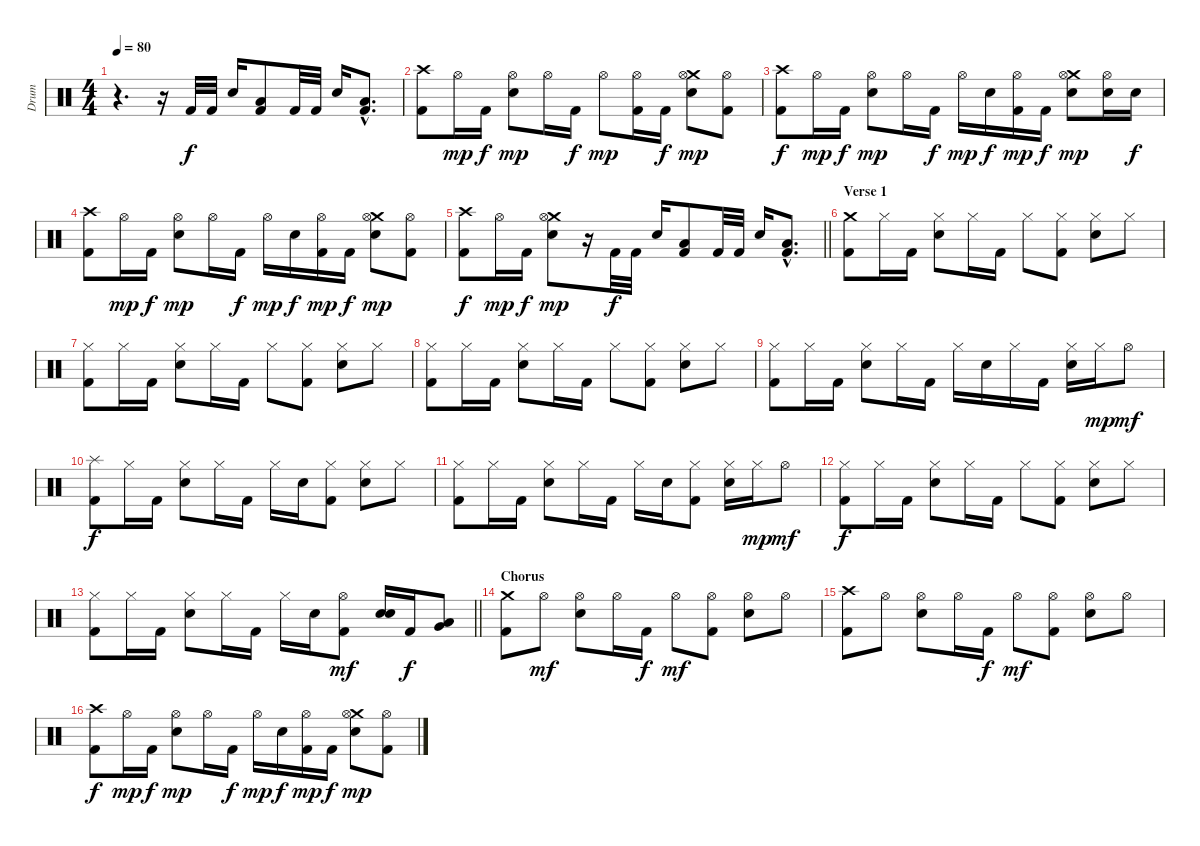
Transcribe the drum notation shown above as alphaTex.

\track ("Drum" "Drum") {instrument percussion}
\staff {score}
\articulation defaults
\ts (4 4)
\tempo 80
\clef neutral
\ks c
r.4{d dy f} r.16 "Kick (hit) 2".32 "Kick (hit) 2".32 "Snare (hit) 2".16 ("Low Floor Tom (hit)" "Kick (hit) 2").8 "Kick (hit) 2".32 "Kick (hit) 2".32 "Snare (hit) 2".16 ("Low Floor Tom (hit)"{hac} "Kick (hit) 2"{hac}).8{d} |
("Crash high (hit)" "Kick (hit) 2").8 "Hi-Hat (open)".16{dy mp} "Kick (hit) 2".16{dy f} ("Hi-Hat (open)" "Snare (hit) 2").8{dy mp} "Hi-Hat (open)".16 "Kick (hit) 2".16{dy f} "Hi-Hat (open)".8{dy mp} ("Hi-Hat (open)" "Kick (hit) 2").16 "Kick (hit) 2".16{dy f} ("Crash medium (hit)" "Hi-Hat (open)" "Snare (hit) 2").8{dy mp} ("Hi-Hat (open)" "Kick (hit) 2").8 |
("Crash high (hit)" "Kick (hit) 2").8{dy f} "Hi-Hat (open)".16{dy mp} "Kick (hit) 2".16{dy f} ("Hi-Hat (open)" "Snare (hit) 2").8{dy mp} "Hi-Hat (open)".16 "Kick (hit) 2".16{dy f} "Hi-Hat (open)".16{dy mp} "Snare (hit) 2".16{dy f} ("Hi-Hat (open)" "Kick (hit) 2").16{dy mp} "Kick (hit) 2".16{dy f} ("Crash medium (hit)" "Hi-Hat (open)" "Snare (hit) 2").8{dy mp} ("Hi-Hat (open)" "Snare (hit) 2").16 "Snare (hit) 2".16{dy f} |
("Crash high (hit)" "Kick (hit) 2").8 "Hi-Hat (open)".16{dy mp} "Kick (hit) 2".16{dy f} ("Hi-Hat (open)" "Snare (hit) 2").8{dy mp} "Hi-Hat (open)".16 "Kick (hit) 2".16{dy f} "Hi-Hat (open)".16{dy mp} "Snare (hit) 2".16{dy f} ("Hi-Hat (open)" "Kick (hit) 2").16{dy mp} "Kick (hit) 2".16{dy f} ("Crash medium (hit)" "Hi-Hat (open)" "Snare (hit) 2").8{dy mp} ("Hi-Hat (open)" "Kick (hit) 2").8 |
\barLineRight lightlight
("Crash high (hit)" "Kick (hit) 2").8{dy f} "Hi-Hat (open)".16{dy mp} "Kick (hit) 2".16{dy f} ("Crash medium (hit)" "Hi-Hat (open)" "Snare (hit) 2").8{dy mp} r.16 "Kick (hit) 2".32{dy f} "Kick (hit) 2".32 "Snare (hit) 2".16 ("Low Floor Tom (hit)" "Kick (hit) 2").8 "Kick (hit) 2".32 "Kick (hit) 2".32 "Snare (hit) 2".16 ("Low Floor Tom (hit)"{hac} "Kick (hit) 2"{hac}).8{d} |
\section ("" "Verse 1")
("Crash medium (hit)" "Kick (hit) 2").8 "Hi-Hat (closed)".16 "Kick (hit) 2".16 ("Hi-Hat (closed)" "Electric Snare (hit)").8 "Hi-Hat (closed)".16 "Kick (hit) 2".16 "Hi-Hat (closed)".8 ("Hi-Hat (closed)" "Kick (hit) 2").8 ("Hi-Hat (closed)" "Electric Snare (hit)").8 "Hi-Hat (closed)".8 |
("Hi-Hat (closed)" "Kick (hit) 2").8 "Hi-Hat (closed)".16 "Kick (hit) 2".16 ("Hi-Hat (closed)" "Electric Snare (hit)").8 "Hi-Hat (closed)".16 "Kick (hit) 2".16 "Hi-Hat (closed)".8 ("Hi-Hat (closed)" "Kick (hit) 2").8 ("Hi-Hat (closed)" "Electric Snare (hit)").8 "Hi-Hat (closed)".8 |
("Hi-Hat (closed)" "Kick (hit) 2").8 "Hi-Hat (closed)".16 "Kick (hit) 2".16 ("Hi-Hat (closed)" "Electric Snare (hit)").8 "Hi-Hat (closed)".16 "Kick (hit) 2".16 "Hi-Hat (closed)".8 ("Hi-Hat (closed)" "Kick (hit) 2").8 ("Hi-Hat (closed)" "Electric Snare (hit)").8 "Hi-Hat (closed)".8 |
("Hi-Hat (closed)" "Kick (hit) 2").8 "Hi-Hat (closed)".16 "Kick (hit) 2".16 ("Hi-Hat (closed)" "Electric Snare (hit)").8 "Hi-Hat (closed)".16 "Kick (hit) 2".16 "Hi-Hat (closed)".16 "Electric Snare (hit)".16 "Hi-Hat (closed)".16 "Kick (hit) 2".16 ("Hi-Hat (closed)" "Electric Snare (hit)").16 "Hi-Hat (closed)".16{dy mp} "Hi-Hat (open)".8{dy mf} |
("Splash (hit)" "Kick (hit) 2").8{dy f} "Hi-Hat (closed)".16 "Kick (hit) 2".16 ("Hi-Hat (closed)" "Electric Snare (hit)").8 "Hi-Hat (closed)".16 "Kick (hit) 2".16 "Hi-Hat (closed)".16 "Electric Snare (hit)".16 ("Hi-Hat (closed)" "Kick (hit) 2").8 ("Hi-Hat (closed)" "Electric Snare (hit)").8 "Hi-Hat (closed)".8 |
("Hi-Hat (closed)" "Kick (hit) 2").8 "Hi-Hat (closed)".16 "Kick (hit) 2".16 ("Hi-Hat (closed)" "Electric Snare (hit)").8 "Hi-Hat (closed)".16 "Kick (hit) 2".16 "Hi-Hat (closed)".16 "Electric Snare (hit)".16 ("Hi-Hat (closed)" "Kick (hit) 2").8 ("Hi-Hat (closed)" "Electric Snare (hit)").16 "Hi-Hat (closed)".16{dy mp} "Hi-Hat (open)".8{dy mf} |
("Hi-Hat (closed)" "Kick (hit) 2").8{dy f} "Hi-Hat (closed)".16 "Kick (hit) 2".16 ("Hi-Hat (closed)" "Electric Snare (hit)").8 "Hi-Hat (closed)".16 "Kick (hit) 2".16 "Hi-Hat (closed)".8 ("Hi-Hat (closed)" "Kick (hit) 2").8 ("Hi-Hat (closed)" "Electric Snare (hit)").8 "Hi-Hat (closed)".8 |
\barLineRight lightlight
("Hi-Hat (closed)" "Kick (hit) 2").8 "Hi-Hat (closed)".16 "Kick (hit) 2".16 ("Hi-Hat (closed)" "Electric Snare (hit)").8 "Hi-Hat (closed)".16 "Kick (hit) 2".16 "Hi-Hat (closed)".16 "Electric Snare (hit)".16 ("Hi-Hat (open)" "Kick (hit) 2").8{dy mf} ("Snare (hit) 2" "Snare (hit) 2").16 "Kick (hit) 2".16{dy f} ("Low Tom (hit)" "Very Low Tom (hit)").8 |
\section ("" "Chorus")
("Crash medium (hit)" "Kick (hit) 2").8 "Hi-Hat (open)".8{dy mf} ("Hi-Hat (open)" "Snare (hit) 2").8 "Hi-Hat (open)".16 "Kick (hit) 2".16{dy f} "Hi-Hat (open)".8{dy mf} ("Hi-Hat (open)" "Kick (hit) 2").8 ("Hi-Hat (open)" "Snare (hit) 2").8 "Hi-Hat (open)".8 |
("Crash high (hit)" "Kick (hit) 2").8 "Hi-Hat (open)".8 ("Hi-Hat (open)" "Snare (hit) 2").8 "Hi-Hat (open)".16 "Kick (hit) 2".16{dy f} "Hi-Hat (open)".8{dy mf} ("Hi-Hat (open)" "Kick (hit) 2").8 ("Hi-Hat (open)" "Snare (hit) 2").8 "Hi-Hat (open)".8 |
("Crash high (hit)" "Kick (hit) 2").8{dy f} "Hi-Hat (open)".16{dy mp} "Kick (hit) 2".16{dy f} ("Hi-Hat (open)" "Snare (hit) 2").8{dy mp} "Hi-Hat (open)".16 "Kick (hit) 2".16{dy f} "Hi-Hat (open)".16{dy mp} "Snare (hit) 2".16{dy f} ("Hi-Hat (open)" "Kick (hit) 2").16{dy mp} "Kick (hit) 2".16{dy f} ("Crash medium (hit)" "Hi-Hat (open)" "Snare (hit) 2").8{dy mp} ("Hi-Hat (open)" "Kick (hit) 2").8
